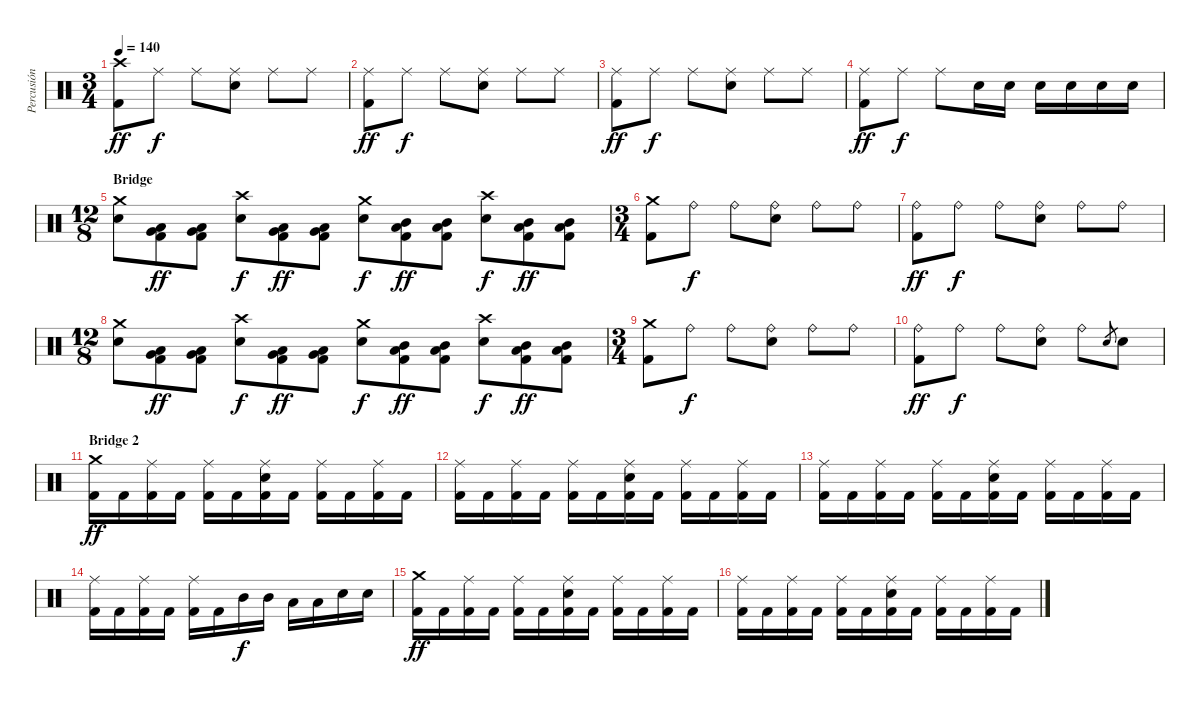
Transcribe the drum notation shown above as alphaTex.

\track ("Percusión" "Percusión") {instrument percussion}
\staff {score}
\articulation defaults
\ts (3 4)
\tempo 140
\clef neutral
\ks c
("Crash high (hit)" "Kick (hit) 2").8{dy ff} "Ride (middle)".8{dy f} "Ride (middle)".8 ("Ride (middle)" "Electric Snare (hit)").8 "Ride (middle)".8 "Ride (middle)".8 |
("Ride (middle)" "Kick (hit) 2").8{dy ff} "Ride (middle)".8{dy f} "Ride (middle)".8 ("Ride (middle)" "Electric Snare (hit)").8 "Ride (middle)".8 "Ride (middle)".8 |
("Ride (middle)" "Kick (hit) 2").8{dy ff} "Ride (middle)".8{dy f} "Ride (middle)".8 ("Ride (middle)" "Electric Snare (hit)").8 "Ride (middle)".8 "Ride (middle)".8 |
("Ride (middle)" "Kick (hit) 2").8{dy ff} "Ride (middle)".8{dy f} "Ride (middle)".8 "Electric Snare (hit)".16 "Electric Snare (hit)".16 "Electric Snare (hit)".16 "Electric Snare (hit)".16 "Electric Snare (hit)".16 "Electric Snare (hit)".16 |
\ts (12 8)
\section ("" "Bridge")
("Crash medium (hit)" "Electric Snare (hit)").8 ("Low Tom (hit)" "Very Low Tom (hit)" "Kick (hit) 2").8{dy ff} ("Low Tom (hit)" "Very Low Tom (hit)" "Kick (hit) 2").8 ("Crash high (hit)" "Electric Snare (hit)").8{dy f} ("Low Tom (hit)" "Very Low Tom (hit)" "Kick (hit) 2").8{dy ff} ("Low Tom (hit)" "Very Low Tom (hit)" "Kick (hit) 2").8 ("Crash medium (hit)" "Electric Snare (hit)").8{dy f} ("Low Tom (hit)" "Mid Tom (hit)" "Kick (hit) 2").8{dy ff} ("Low Tom (hit)" "Mid Tom (hit)" "Kick (hit) 2").8 ("Crash high (hit)" "Electric Snare (hit)").8{dy f} ("Low Tom (hit)" "Mid Tom (hit)" "Kick (hit) 2").8{dy ff} ("Low Tom (hit)" "Mid Tom (hit)" "Kick (hit) 2").8 |
\ts (3 4)
("Crash medium (hit)" "Kick (hit) 2").8 "Ride (bell)".8{dy f} "Ride (bell)".8 ("Ride (bell)" "Electric Snare (hit)").8 "Ride (bell)".8 "Ride (bell)".8 |
("Ride (bell)" "Kick (hit) 2").8{dy ff} "Ride (bell)".8{dy f} "Ride (bell)".8 ("Ride (bell)" "Electric Snare (hit)").8 "Ride (bell)".8 "Ride (bell)".8 |
\ts (12 8)
("Crash medium (hit)" "Electric Snare (hit)").8 ("Low Tom (hit)" "Very Low Tom (hit)" "Kick (hit) 2").8{dy ff} ("Low Tom (hit)" "Very Low Tom (hit)" "Kick (hit) 2").8 ("Crash high (hit)" "Electric Snare (hit)").8{dy f} ("Low Tom (hit)" "Very Low Tom (hit)" "Kick (hit) 2").8{dy ff} ("Low Tom (hit)" "Very Low Tom (hit)" "Kick (hit) 2").8 ("Crash medium (hit)" "Electric Snare (hit)").8{dy f} ("Low Tom (hit)" "Mid Tom (hit)" "Kick (hit) 2").8{dy ff} ("Low Tom (hit)" "Mid Tom (hit)" "Kick (hit) 2").8 ("Crash high (hit)" "Electric Snare (hit)").8{dy f} ("Low Tom (hit)" "Mid Tom (hit)" "Kick (hit) 2").8{dy ff} ("Low Tom (hit)" "Mid Tom (hit)" "Kick (hit) 2").8 |
\ts (3 4)
("Crash medium (hit)" "Kick (hit) 2").8 "Ride (bell)".8{dy f} "Ride (bell)".8 ("Ride (bell)" "Electric Snare (hit)").8 "Ride (bell)".8 "Ride (bell)".8 |
("Ride (bell)" "Kick (hit) 2").8{dy ff} "Ride (bell)".8{dy f} "Ride (bell)".8 ("Ride (bell)" "Electric Snare (hit)").8 "Ride (bell)".8 "Electric Snare (hit)".8{gr} "Electric Snare (hit)".8 |
\section ("" "Bridge 2")
("Crash medium (hit)" "Kick (hit) 2").16{dy ff} "Kick (hit) 2".16 ("Ride (middle)" "Kick (hit) 2").16 "Kick (hit) 2".16 ("Ride (middle)" "Kick (hit) 2").16 "Kick (hit) 2".16 ("Ride (middle)" "Electric Snare (hit)" "Kick (hit) 2").16 "Kick (hit) 2".16 ("Ride (middle)" "Kick (hit) 2").16 "Kick (hit) 2".16 ("Ride (middle)" "Kick (hit) 2").16 "Kick (hit) 2".16 |
("Ride (middle)" "Kick (hit) 2").16 "Kick (hit) 2".16 ("Ride (middle)" "Kick (hit) 2").16 "Kick (hit) 2".16 ("Ride (middle)" "Kick (hit) 2").16 "Kick (hit) 2".16 ("Ride (middle)" "Electric Snare (hit)" "Kick (hit) 2").16 "Kick (hit) 2".16 ("Ride (middle)" "Kick (hit) 2").16 "Kick (hit) 2".16 ("Ride (middle)" "Kick (hit) 2").16 "Kick (hit) 2".16 |
("Ride (middle)" "Kick (hit) 2").16 "Kick (hit) 2".16 ("Ride (middle)" "Kick (hit) 2").16 "Kick (hit) 2".16 ("Ride (middle)" "Kick (hit) 2").16 "Kick (hit) 2".16 ("Ride (middle)" "Electric Snare (hit)" "Kick (hit) 2").16 "Kick (hit) 2".16 ("Ride (middle)" "Kick (hit) 2").16 "Kick (hit) 2".16 ("Ride (middle)" "Kick (hit) 2").16 "Kick (hit) 2".16 |
("Ride (middle)" "Kick (hit) 2").16 "Kick (hit) 2".16 ("Ride (middle)" "Kick (hit) 2").16 "Kick (hit) 2".16 ("Ride (middle)" "Kick (hit) 2").16 "Kick (hit) 2".16 "Mid Tom (hit)".16{dy f} "Mid Tom (hit)".16 "Low Tom (hit)".16 "Low Tom (hit)".16 "Electric Snare (hit)".16 "Electric Snare (hit)".16 |
("Crash medium (hit)" "Kick (hit) 2").16{dy ff} "Kick (hit) 2".16 ("Ride (middle)" "Kick (hit) 2").16 "Kick (hit) 2".16 ("Ride (middle)" "Kick (hit) 2").16 "Kick (hit) 2".16 ("Ride (middle)" "Electric Snare (hit)" "Kick (hit) 2").16 "Kick (hit) 2".16 ("Ride (middle)" "Kick (hit) 2").16 "Kick (hit) 2".16 ("Ride (middle)" "Kick (hit) 2").16 "Kick (hit) 2".16 |
("Ride (middle)" "Kick (hit) 2").16 "Kick (hit) 2".16 ("Ride (middle)" "Kick (hit) 2").16 "Kick (hit) 2".16 ("Ride (middle)" "Kick (hit) 2").16 "Kick (hit) 2".16 ("Ride (middle)" "Electric Snare (hit)" "Kick (hit) 2").16 "Kick (hit) 2".16 ("Ride (middle)" "Kick (hit) 2").16 "Kick (hit) 2".16 ("Ride (middle)" "Kick (hit) 2").16 "Kick (hit) 2".16
